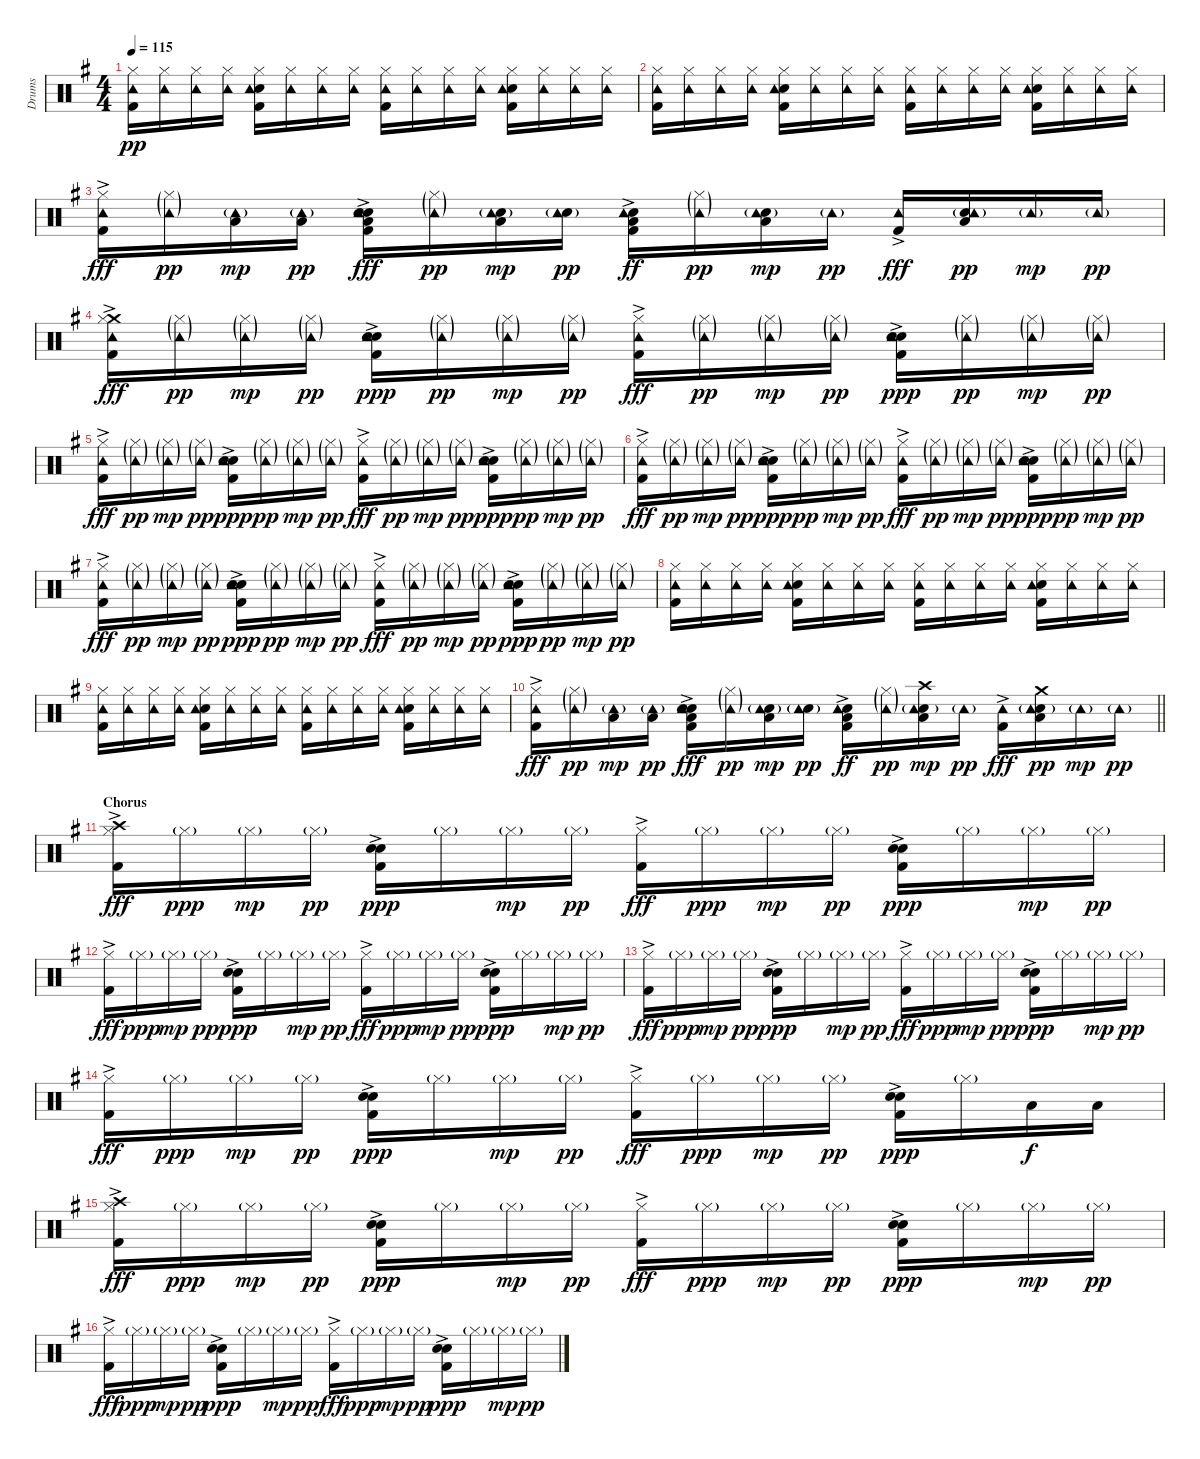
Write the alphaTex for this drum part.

\track ("Drums" "Drums") {instrument percussion}
\staff {score}
\articulation defaults
\ts (4 4)
\tempo 115
\clef neutral
\ks g
("Kick (hit) 2" "Hi-Hat (closed)" "Tambourine (hit)").16{dy pp} ("Hi-Hat (closed)" "Tambourine (hit)").16 ("Hi-Hat (closed)" "Tambourine (hit)").16 ("Hi-Hat (closed)" "Tambourine (hit)").16 ("Kick (hit) 2" "Snare (hit) 2" "Hi-Hat (closed)" "Tambourine (hit)").16 ("Hi-Hat (closed)" "Tambourine (hit)").16 ("Hi-Hat (closed)" "Tambourine (hit)").16 ("Hi-Hat (closed)" "Tambourine (hit)").16 ("Kick (hit) 2" "Hi-Hat (closed)" "Tambourine (hit)").16 ("Hi-Hat (closed)" "Tambourine (hit)").16 ("Hi-Hat (closed)" "Tambourine (hit)").16 ("Hi-Hat (closed)" "Tambourine (hit)").16 ("Kick (hit) 2" "Snare (hit) 2" "Hi-Hat (closed)" "Tambourine (hit)").16 ("Hi-Hat (closed)" "Tambourine (hit)").16 ("Hi-Hat (closed)" "Tambourine (hit)").16 ("Hi-Hat (closed)" "Tambourine (hit)").16 |
("Kick (hit) 2" "Hi-Hat (closed)" "Tambourine (hit)").16 ("Hi-Hat (closed)" "Tambourine (hit)").16 ("Hi-Hat (closed)" "Tambourine (hit)").16 ("Hi-Hat (closed)" "Tambourine (hit)").16 ("Kick (hit) 2" "Snare (hit) 2" "Hi-Hat (closed)" "Tambourine (hit)").16 ("Hi-Hat (closed)" "Tambourine (hit)").16 ("Hi-Hat (closed)" "Tambourine (hit)").16 ("Hi-Hat (closed)" "Tambourine (hit)").16 ("Kick (hit) 2" "Hi-Hat (closed)" "Tambourine (hit)").16 ("Hi-Hat (closed)" "Tambourine (hit)").16 ("Hi-Hat (closed)" "Tambourine (hit)").16 ("Hi-Hat (closed)" "Tambourine (hit)").16 ("Kick (hit) 2" "Snare (hit) 2" "Hi-Hat (closed)" "Tambourine (hit)").16 ("Hi-Hat (closed)" "Tambourine (hit)").16 ("Hi-Hat (closed)" "Tambourine (hit)").16 ("Hi-Hat (closed)" "Tambourine (hit)").16 |
("Kick (hit) 2"{ac} "Hi-Hat (closed)" "Tambourine (hit)").16{dy fff} ("Hi-Hat (closed)"{g} "Tambourine (hit)"{g}).16{dy pp} ("Low Tom (hit)" "Tambourine (hit)"{g}).16{dy mp} ("Low Tom (hit)" "Tambourine (hit)"{g}).16{dy pp} ("Kick (hit) 2"{ac} "Snare (hit) 2"{ac} "Electric Snare (hit)" "Low Tom (hit)" "Tambourine (hit)").16{dy fff} ("Hi-Hat (closed)"{g} "Tambourine (hit)"{g}).16{dy pp} ("Snare (hit) 2" "Low Tom (hit)" "Tambourine (hit)"{g}).16{dy mp} ("Snare (hit) 2" "Tambourine (hit)"{g}).16{dy pp} ("Kick (hit) 2"{ac} "Snare (hit) 2" "Low Floor Tom (hit)" "Tambourine (hit)").16{dy ff} ("Hi-Hat (closed)"{g} "Tambourine (hit)"{g}).16{dy pp} ("Snare (hit) 2" "Low Tom (hit)" "Tambourine (hit)"{g}).16{dy mp} "Tambourine (hit)"{g}.16{dy pp} ("Kick (hit) 2"{ac} "Tambourine (hit)").16{dy fff} ("Snare (hit) 2" "Low Tom (hit)" "Tambourine (hit)"{g}).16{dy pp} "Tambourine (hit)"{g}.16{dy mp} "Tambourine (hit)"{g}.16{dy pp} |
("Kick (hit) 2"{ac} "Crash medium (hit)" "Hi-Hat (closed)" "Tambourine (hit)").16{dy fff} ("Hi-Hat (closed)"{g} "Tambourine (hit)"{g}).16{dy pp} ("Hi-Hat (closed)"{g} "Tambourine (hit)"{g}).16{dy mp} ("Hi-Hat (closed)"{g} "Tambourine (hit)"{g}).16{dy pp} ("Kick (hit) 2"{ac} "Snare (hit) 2"{ac} "Electric Snare (hit)" "Tambourine (hit)").16{dy ppp} ("Hi-Hat (closed)"{g} "Tambourine (hit)"{g}).16{dy pp} ("Hi-Hat (closed)"{g} "Tambourine (hit)"{g}).16{dy mp} ("Hi-Hat (closed)"{g} "Tambourine (hit)"{g}).16{dy pp} ("Kick (hit) 2"{ac} "Hi-Hat (closed)" "Tambourine (hit)").16{dy fff} ("Hi-Hat (closed)"{g} "Tambourine (hit)"{g}).16{dy pp} ("Hi-Hat (closed)"{g} "Tambourine (hit)"{g}).16{dy mp} ("Hi-Hat (closed)"{g} "Tambourine (hit)"{g}).16{dy pp} ("Kick (hit) 2"{ac} "Snare (hit) 2"{ac} "Electric Snare (hit)" "Tambourine (hit)").16{dy ppp} ("Hi-Hat (closed)"{g} "Tambourine (hit)"{g}).16{dy pp} ("Hi-Hat (closed)"{g} "Tambourine (hit)"{g}).16{dy mp} ("Hi-Hat (closed)"{g} "Tambourine (hit)"{g}).16{dy pp} |
("Kick (hit) 2"{ac} "Hi-Hat (closed)" "Tambourine (hit)").16{dy fff} ("Hi-Hat (closed)"{g} "Tambourine (hit)"{g}).16{dy pp} ("Hi-Hat (closed)"{g} "Tambourine (hit)"{g}).16{dy mp} ("Hi-Hat (closed)"{g} "Tambourine (hit)"{g}).16{dy pp} ("Kick (hit) 2"{ac} "Snare (hit) 2"{ac} "Electric Snare (hit)" "Tambourine (hit)").16{dy ppp} ("Hi-Hat (closed)"{g} "Tambourine (hit)"{g}).16{dy pp} ("Hi-Hat (closed)"{g} "Tambourine (hit)"{g}).16{dy mp} ("Hi-Hat (closed)"{g} "Tambourine (hit)"{g}).16{dy pp} ("Kick (hit) 2"{ac} "Hi-Hat (closed)" "Tambourine (hit)").16{dy fff} ("Hi-Hat (closed)"{g} "Tambourine (hit)"{g}).16{dy pp} ("Hi-Hat (closed)"{g} "Tambourine (hit)"{g}).16{dy mp} ("Hi-Hat (closed)"{g} "Tambourine (hit)"{g}).16{dy pp} ("Kick (hit) 2"{ac} "Snare (hit) 2"{ac} "Electric Snare (hit)" "Tambourine (hit)").16{dy ppp} ("Hi-Hat (closed)"{g} "Tambourine (hit)"{g}).16{dy pp} ("Hi-Hat (closed)"{g} "Tambourine (hit)"{g}).16{dy mp} ("Hi-Hat (closed)"{g} "Tambourine (hit)"{g}).16{dy pp} |
("Kick (hit) 2"{ac} "Hi-Hat (closed)" "Tambourine (hit)").16{dy fff} ("Hi-Hat (closed)"{g} "Tambourine (hit)"{g}).16{dy pp} ("Hi-Hat (closed)"{g} "Tambourine (hit)"{g}).16{dy mp} ("Hi-Hat (closed)"{g} "Tambourine (hit)"{g}).16{dy pp} ("Kick (hit) 2"{ac} "Snare (hit) 2"{ac} "Electric Snare (hit)" "Tambourine (hit)").16{dy ppp} ("Hi-Hat (closed)"{g} "Tambourine (hit)"{g}).16{dy pp} ("Hi-Hat (closed)"{g} "Tambourine (hit)"{g}).16{dy mp} ("Hi-Hat (closed)"{g} "Tambourine (hit)"{g}).16{dy pp} ("Kick (hit) 2"{ac} "Hi-Hat (closed)" "Tambourine (hit)").16{dy fff} ("Hi-Hat (closed)"{g} "Tambourine (hit)"{g}).16{dy pp} ("Hi-Hat (closed)"{g} "Tambourine (hit)"{g}).16{dy mp} ("Hi-Hat (closed)"{g} "Tambourine (hit)"{g}).16{dy pp} ("Kick (hit) 2"{ac} "Snare (hit) 2"{ac} "Electric Snare (hit)" "Tambourine (hit)").16{dy ppp} ("Hi-Hat (closed)"{g} "Tambourine (hit)"{g}).16{dy pp} ("Hi-Hat (closed)"{g} "Tambourine (hit)"{g}).16{dy mp} ("Hi-Hat (closed)"{g} "Tambourine (hit)"{g}).16{dy pp} |
("Kick (hit) 2"{ac} "Hi-Hat (closed)" "Tambourine (hit)").16{dy fff} ("Hi-Hat (closed)"{g} "Tambourine (hit)"{g}).16{dy pp} ("Hi-Hat (closed)"{g} "Tambourine (hit)"{g}).16{dy mp} ("Hi-Hat (closed)"{g} "Tambourine (hit)"{g}).16{dy pp} ("Kick (hit) 2"{ac} "Snare (hit) 2"{ac} "Electric Snare (hit)" "Tambourine (hit)").16{dy ppp} ("Hi-Hat (closed)"{g} "Tambourine (hit)"{g}).16{dy pp} ("Hi-Hat (closed)"{g} "Tambourine (hit)"{g}).16{dy mp} ("Hi-Hat (closed)"{g} "Tambourine (hit)"{g}).16{dy pp} ("Kick (hit) 2"{ac} "Hi-Hat (closed)" "Tambourine (hit)").16{dy fff} ("Hi-Hat (closed)"{g} "Tambourine (hit)"{g}).16{dy pp} ("Hi-Hat (closed)"{g} "Tambourine (hit)"{g}).16{dy mp} ("Hi-Hat (closed)"{g} "Tambourine (hit)"{g}).16{dy pp} ("Kick (hit) 2"{ac} "Snare (hit) 2"{ac} "Electric Snare (hit)" "Tambourine (hit)").16{dy ppp} ("Hi-Hat (closed)"{g} "Tambourine (hit)"{g}).16{dy pp} ("Hi-Hat (closed)"{g} "Tambourine (hit)"{g}).16{dy mp} ("Hi-Hat (closed)"{g} "Tambourine (hit)"{g}).16{dy pp} |
("Kick (hit) 2" "Hi-Hat (closed)" "Tambourine (hit)").16 ("Hi-Hat (closed)" "Tambourine (hit)").16 ("Hi-Hat (closed)" "Tambourine (hit)").16 ("Hi-Hat (closed)" "Tambourine (hit)").16 ("Kick (hit) 2" "Snare (hit) 2" "Hi-Hat (closed)" "Tambourine (hit)").16 ("Hi-Hat (closed)" "Tambourine (hit)").16 ("Hi-Hat (closed)" "Tambourine (hit)").16 ("Hi-Hat (closed)" "Tambourine (hit)").16 ("Kick (hit) 2" "Hi-Hat (closed)" "Tambourine (hit)").16 ("Hi-Hat (closed)" "Tambourine (hit)").16 ("Hi-Hat (closed)" "Tambourine (hit)").16 ("Hi-Hat (closed)" "Tambourine (hit)").16 ("Kick (hit) 2" "Snare (hit) 2" "Hi-Hat (closed)" "Tambourine (hit)").16 ("Hi-Hat (closed)" "Tambourine (hit)").16 ("Hi-Hat (closed)" "Tambourine (hit)").16 ("Hi-Hat (closed)" "Tambourine (hit)").16 |
("Kick (hit) 2" "Hi-Hat (closed)" "Tambourine (hit)").16 ("Hi-Hat (closed)" "Tambourine (hit)").16 ("Hi-Hat (closed)" "Tambourine (hit)").16 ("Hi-Hat (closed)" "Tambourine (hit)").16 ("Kick (hit) 2" "Snare (hit) 2" "Hi-Hat (closed)" "Tambourine (hit)").16 ("Hi-Hat (closed)" "Tambourine (hit)").16 ("Hi-Hat (closed)" "Tambourine (hit)").16 ("Hi-Hat (closed)" "Tambourine (hit)").16 ("Kick (hit) 2" "Hi-Hat (closed)" "Tambourine (hit)").16 ("Hi-Hat (closed)" "Tambourine (hit)").16 ("Hi-Hat (closed)" "Tambourine (hit)").16 ("Hi-Hat (closed)" "Tambourine (hit)").16 ("Kick (hit) 2" "Snare (hit) 2" "Hi-Hat (closed)" "Tambourine (hit)").16 ("Hi-Hat (closed)" "Tambourine (hit)").16 ("Hi-Hat (closed)" "Tambourine (hit)").16 ("Hi-Hat (closed)" "Tambourine (hit)").16 |
\barLineRight lightlight
("Kick (hit) 2"{ac} "Hi-Hat (closed)" "Tambourine (hit)").16{dy fff} ("Hi-Hat (closed)"{g} "Tambourine (hit)"{g}).16{dy pp} ("Low Tom (hit)" "Tambourine (hit)"{g}).16{dy mp} ("Low Tom (hit)" "Tambourine (hit)"{g}).16{dy pp} ("Kick (hit) 2"{ac} "Snare (hit) 2"{ac} "Electric Snare (hit)" "Low Tom (hit)" "Tambourine (hit)").16{dy fff} ("Hi-Hat (closed)"{g} "Tambourine (hit)"{g}).16{dy pp} ("Snare (hit) 2" "Low Tom (hit)" "Tambourine (hit)"{g}).16{dy mp} ("Snare (hit) 2" "Tambourine (hit)"{g}).16{dy pp} ("Kick (hit) 2"{ac} "Snare (hit) 2" "Low Floor Tom (hit)" "Tambourine (hit)").16{dy ff} ("Hi-Hat (closed)"{g} "Tambourine (hit)"{g}).16{dy pp} ("Snare (hit) 2" "Crash high (hit)" "Low Tom (hit)" "Tambourine (hit)"{g}).16{dy mp} "Tambourine (hit)"{g}.16{dy pp} ("Kick (hit) 2"{ac} "Tambourine (hit)").16{dy fff} ("Snare (hit) 2" "Crash medium (hit)" "Low Tom (hit)" "Tambourine (hit)"{g}).16{dy pp} "Tambourine (hit)"{g}.16{dy mp} "Tambourine (hit)"{g}.16{dy pp} |
\section ("" "Chorus")
("Kick (hit) 2"{ac} "Crash high (hit)" "Hi-Hat (closed)").16{dy fff} "Hi-Hat (closed)"{g}.16{dy ppp} "Hi-Hat (closed)"{g}.16{dy mp} "Hi-Hat (closed)"{g}.16{dy pp} ("Kick (hit) 2"{ac} "Snare (hit) 2"{ac} "Electric Snare (hit)").16{dy ppp} "Hi-Hat (closed)"{g}.16 "Hi-Hat (closed)"{g}.16{dy mp} "Hi-Hat (closed)"{g}.16{dy pp} ("Kick (hit) 2"{ac} "Hi-Hat (closed)").16{dy fff} "Hi-Hat (closed)"{g}.16{dy ppp} "Hi-Hat (closed)"{g}.16{dy mp} "Hi-Hat (closed)"{g}.16{dy pp} ("Kick (hit) 2"{ac} "Snare (hit) 2"{ac} "Electric Snare (hit)").16{dy ppp} "Hi-Hat (closed)"{g}.16 "Hi-Hat (closed)"{g}.16{dy mp} "Hi-Hat (closed)"{g}.16{dy pp} |
("Kick (hit) 2"{ac} "Hi-Hat (closed)").16{dy fff} "Hi-Hat (closed)"{g}.16{dy ppp} "Hi-Hat (closed)"{g}.16{dy mp} "Hi-Hat (closed)"{g}.16{dy pp} ("Kick (hit) 2"{ac} "Snare (hit) 2"{ac} "Electric Snare (hit)").16{dy ppp} "Hi-Hat (closed)"{g}.16 "Hi-Hat (closed)"{g}.16{dy mp} "Hi-Hat (closed)"{g}.16{dy pp} ("Kick (hit) 2"{ac} "Hi-Hat (closed)").16{dy fff} "Hi-Hat (closed)"{g}.16{dy ppp} "Hi-Hat (closed)"{g}.16{dy mp} "Hi-Hat (closed)"{g}.16{dy pp} ("Kick (hit) 2"{ac} "Snare (hit) 2"{ac} "Electric Snare (hit)").16{dy ppp} "Hi-Hat (closed)"{g}.16 "Hi-Hat (closed)"{g}.16{dy mp} "Hi-Hat (closed)"{g}.16{dy pp} |
("Kick (hit) 2"{ac} "Hi-Hat (closed)").16{dy fff} "Hi-Hat (closed)"{g}.16{dy ppp} "Hi-Hat (closed)"{g}.16{dy mp} "Hi-Hat (closed)"{g}.16{dy pp} ("Kick (hit) 2"{ac} "Snare (hit) 2"{ac} "Electric Snare (hit)").16{dy ppp} "Hi-Hat (closed)"{g}.16 "Hi-Hat (closed)"{g}.16{dy mp} "Hi-Hat (closed)"{g}.16{dy pp} ("Kick (hit) 2"{ac} "Hi-Hat (closed)").16{dy fff} "Hi-Hat (closed)"{g}.16{dy ppp} "Hi-Hat (closed)"{g}.16{dy mp} "Hi-Hat (closed)"{g}.16{dy pp} ("Kick (hit) 2"{ac} "Snare (hit) 2"{ac} "Electric Snare (hit)").16{dy ppp} "Hi-Hat (closed)"{g}.16 "Hi-Hat (closed)"{g}.16{dy mp} "Hi-Hat (closed)"{g}.16{dy pp} |
("Kick (hit) 2"{ac} "Hi-Hat (closed)").16{dy fff} "Hi-Hat (closed)"{g}.16{dy ppp} "Hi-Hat (closed)"{g}.16{dy mp} "Hi-Hat (closed)"{g}.16{dy pp} ("Kick (hit) 2"{ac} "Snare (hit) 2"{ac} "Electric Snare (hit)").16{dy ppp} "Hi-Hat (closed)"{g}.16 "Hi-Hat (closed)"{g}.16{dy mp} "Hi-Hat (closed)"{g}.16{dy pp} ("Kick (hit) 2"{ac} "Hi-Hat (closed)").16{dy fff} "Hi-Hat (closed)"{g}.16{dy ppp} "Hi-Hat (closed)"{g}.16{dy mp} "Hi-Hat (closed)"{g}.16{dy pp} ("Kick (hit) 2"{ac} "Snare (hit) 2"{ac} "Electric Snare (hit)").16{dy ppp} "Hi-Hat (closed)"{g}.16 "Low Tom (hit)".16{dy f} "Low Floor Tom (hit)".16 |
("Kick (hit) 2"{ac} "Crash high (hit)" "Hi-Hat (closed)").16{dy fff} "Hi-Hat (closed)"{g}.16{dy ppp} "Hi-Hat (closed)"{g}.16{dy mp} "Hi-Hat (closed)"{g}.16{dy pp} ("Kick (hit) 2"{ac} "Snare (hit) 2"{ac} "Electric Snare (hit)").16{dy ppp} "Hi-Hat (closed)"{g}.16 "Hi-Hat (closed)"{g}.16{dy mp} "Hi-Hat (closed)"{g}.16{dy pp} ("Kick (hit) 2"{ac} "Hi-Hat (closed)").16{dy fff} "Hi-Hat (closed)"{g}.16{dy ppp} "Hi-Hat (closed)"{g}.16{dy mp} "Hi-Hat (closed)"{g}.16{dy pp} ("Kick (hit) 2"{ac} "Snare (hit) 2"{ac} "Electric Snare (hit)").16{dy ppp} "Hi-Hat (closed)"{g}.16 "Hi-Hat (closed)"{g}.16{dy mp} "Hi-Hat (closed)"{g}.16{dy pp} |
("Kick (hit) 2"{ac} "Hi-Hat (closed)").16{dy fff} "Hi-Hat (closed)"{g}.16{dy ppp} "Hi-Hat (closed)"{g}.16{dy mp} "Hi-Hat (closed)"{g}.16{dy pp} ("Kick (hit) 2"{ac} "Snare (hit) 2"{ac} "Electric Snare (hit)").16{dy ppp} "Hi-Hat (closed)"{g}.16 "Hi-Hat (closed)"{g}.16{dy mp} "Hi-Hat (closed)"{g}.16{dy pp} ("Kick (hit) 2"{ac} "Hi-Hat (closed)").16{dy fff} "Hi-Hat (closed)"{g}.16{dy ppp} "Hi-Hat (closed)"{g}.16{dy mp} "Hi-Hat (closed)"{g}.16{dy pp} ("Kick (hit) 2"{ac} "Snare (hit) 2"{ac} "Electric Snare (hit)").16{dy ppp} "Hi-Hat (closed)"{g}.16 "Hi-Hat (closed)"{g}.16{dy mp} "Hi-Hat (closed)"{g}.16{dy pp}
